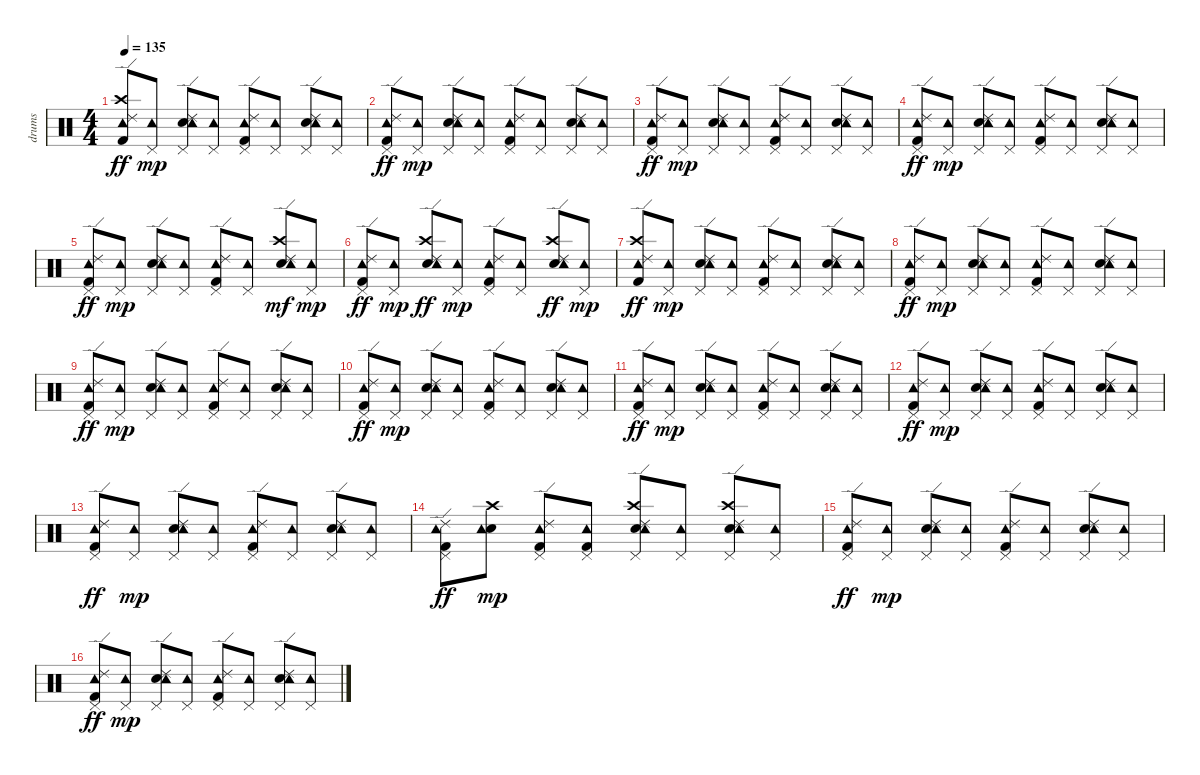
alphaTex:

\track ("drums" "drums") {instrument percussion}
\staff {score}
\articulation defaults
\ts (4 4)
\tempo 135
\clef neutral
\ks c
("Ride (edge) 2" "Kick (hit) 2" "Crash high (hit)" "Tambourine (hit)").8{dy ff} ("Pedal Hi-Hat (hit)" "Tambourine (hit)").8{dy mp} ("Electric Snare (hit)" "Ride (edge) 2" "Pedal Hi-Hat (hit)" "Tambourine (hit)").8 ("Pedal Hi-Hat (hit)" "Tambourine (hit)").8 ("Ride (edge) 2" "Kick (hit) 2" "Pedal Hi-Hat (hit)" "Tambourine (hit)").8 ("Pedal Hi-Hat (hit)" "Tambourine (hit)").8 ("Electric Snare (hit)" "Ride (edge) 2" "Pedal Hi-Hat (hit)" "Tambourine (hit)").8 ("Pedal Hi-Hat (hit)" "Tambourine (hit)").8 |
("Ride (edge) 2" "Kick (hit) 2" "Pedal Hi-Hat (hit)" "Tambourine (hit)").8{dy ff} ("Pedal Hi-Hat (hit)" "Tambourine (hit)").8{dy mp} ("Electric Snare (hit)" "Ride (edge) 2" "Pedal Hi-Hat (hit)" "Tambourine (hit)").8 ("Pedal Hi-Hat (hit)" "Tambourine (hit)").8 ("Ride (edge) 2" "Kick (hit) 2" "Pedal Hi-Hat (hit)" "Tambourine (hit)").8 ("Pedal Hi-Hat (hit)" "Tambourine (hit)").8 ("Electric Snare (hit)" "Ride (edge) 2" "Pedal Hi-Hat (hit)" "Tambourine (hit)").8 ("Pedal Hi-Hat (hit)" "Tambourine (hit)").8 |
("Ride (edge) 2" "Kick (hit) 2" "Pedal Hi-Hat (hit)" "Tambourine (hit)").8{dy ff} ("Pedal Hi-Hat (hit)" "Tambourine (hit)").8{dy mp} ("Electric Snare (hit)" "Ride (edge) 2" "Pedal Hi-Hat (hit)" "Tambourine (hit)").8 ("Pedal Hi-Hat (hit)" "Tambourine (hit)").8 ("Ride (edge) 2" "Kick (hit) 2" "Pedal Hi-Hat (hit)" "Tambourine (hit)").8 ("Pedal Hi-Hat (hit)" "Tambourine (hit)").8 ("Electric Snare (hit)" "Ride (edge) 2" "Pedal Hi-Hat (hit)" "Tambourine (hit)").8 ("Pedal Hi-Hat (hit)" "Tambourine (hit)").8 |
("Ride (edge) 2" "Kick (hit) 2" "Pedal Hi-Hat (hit)" "Tambourine (hit)").8{dy ff} ("Pedal Hi-Hat (hit)" "Tambourine (hit)").8{dy mp} ("Electric Snare (hit)" "Ride (edge) 2" "Pedal Hi-Hat (hit)" "Tambourine (hit)").8 ("Pedal Hi-Hat (hit)" "Tambourine (hit)").8 ("Ride (edge) 2" "Kick (hit) 2" "Pedal Hi-Hat (hit)" "Tambourine (hit)").8 ("Pedal Hi-Hat (hit)" "Tambourine (hit)").8 ("Electric Snare (hit)" "Ride (edge) 2" "Pedal Hi-Hat (hit)" "Tambourine (hit)").8 ("Pedal Hi-Hat (hit)" "Tambourine (hit)").8 |
("Ride (edge) 2" "Kick (hit) 2" "Pedal Hi-Hat (hit)" "Tambourine (hit)").8{dy ff} ("Pedal Hi-Hat (hit)" "Tambourine (hit)").8{dy mp} ("Electric Snare (hit)" "Ride (edge) 2" "Pedal Hi-Hat (hit)" "Tambourine (hit)").8 ("Pedal Hi-Hat (hit)" "Tambourine (hit)").8 ("Ride (edge) 2" "Kick (hit) 2" "Pedal Hi-Hat (hit)" "Tambourine (hit)").8 ("Pedal Hi-Hat (hit)" "Tambourine (hit)").8 ("Electric Snare (hit)" "Ride (edge) 2" "Crash high (hit)" "Tambourine (hit)").8{dy mf} ("Pedal Hi-Hat (hit)" "Tambourine (hit)").8{dy mp} |
("Ride (edge) 2" "Kick (hit) 2" "Pedal Hi-Hat (hit)" "Tambourine (hit)").8{dy ff} ("Pedal Hi-Hat (hit)" "Tambourine (hit)").8{dy mp} ("Electric Snare (hit)" "Ride (edge) 2" "Crash high (hit)" "Tambourine (hit)").8{dy ff} ("Pedal Hi-Hat (hit)" "Tambourine (hit)").8{dy mp} ("Ride (edge) 2" "Kick (hit) 2" "Pedal Hi-Hat (hit)" "Tambourine (hit)").8 ("Pedal Hi-Hat (hit)" "Tambourine (hit)").8 ("Electric Snare (hit)" "Ride (edge) 2" "Crash high (hit)" "Tambourine (hit)").8{dy ff} ("Pedal Hi-Hat (hit)" "Tambourine (hit)").8{dy mp} |
("Ride (edge) 2" "Kick (hit) 2" "Crash high (hit)" "Tambourine (hit)").8{dy ff} ("Pedal Hi-Hat (hit)" "Tambourine (hit)").8{dy mp} ("Electric Snare (hit)" "Ride (edge) 2" "Pedal Hi-Hat (hit)" "Tambourine (hit)").8 ("Pedal Hi-Hat (hit)" "Tambourine (hit)").8 ("Ride (edge) 2" "Kick (hit) 2" "Pedal Hi-Hat (hit)" "Tambourine (hit)").8 ("Pedal Hi-Hat (hit)" "Tambourine (hit)").8 ("Electric Snare (hit)" "Ride (edge) 2" "Pedal Hi-Hat (hit)" "Tambourine (hit)").8 ("Pedal Hi-Hat (hit)" "Tambourine (hit)").8 |
("Ride (edge) 2" "Kick (hit) 2" "Pedal Hi-Hat (hit)" "Tambourine (hit)").8{dy ff} ("Pedal Hi-Hat (hit)" "Tambourine (hit)").8{dy mp} ("Electric Snare (hit)" "Ride (edge) 2" "Pedal Hi-Hat (hit)" "Tambourine (hit)").8 ("Pedal Hi-Hat (hit)" "Tambourine (hit)").8 ("Ride (edge) 2" "Kick (hit) 2" "Pedal Hi-Hat (hit)" "Tambourine (hit)").8 ("Pedal Hi-Hat (hit)" "Tambourine (hit)").8 ("Electric Snare (hit)" "Ride (edge) 2" "Pedal Hi-Hat (hit)" "Tambourine (hit)").8 ("Pedal Hi-Hat (hit)" "Tambourine (hit)").8 |
("Ride (edge) 2" "Kick (hit) 2" "Pedal Hi-Hat (hit)" "Tambourine (hit)").8{dy ff} ("Pedal Hi-Hat (hit)" "Tambourine (hit)").8{dy mp} ("Electric Snare (hit)" "Ride (edge) 2" "Pedal Hi-Hat (hit)" "Tambourine (hit)").8 ("Pedal Hi-Hat (hit)" "Tambourine (hit)").8 ("Ride (edge) 2" "Kick (hit) 2" "Pedal Hi-Hat (hit)" "Tambourine (hit)").8 ("Pedal Hi-Hat (hit)" "Tambourine (hit)").8 ("Electric Snare (hit)" "Ride (edge) 2" "Pedal Hi-Hat (hit)" "Tambourine (hit)").8 ("Pedal Hi-Hat (hit)" "Tambourine (hit)").8 |
("Ride (edge) 2" "Kick (hit) 2" "Pedal Hi-Hat (hit)" "Tambourine (hit)").8{dy ff} ("Pedal Hi-Hat (hit)" "Tambourine (hit)").8{dy mp} ("Electric Snare (hit)" "Ride (edge) 2" "Pedal Hi-Hat (hit)" "Tambourine (hit)").8 ("Pedal Hi-Hat (hit)" "Tambourine (hit)").8 ("Ride (edge) 2" "Kick (hit) 2" "Pedal Hi-Hat (hit)" "Tambourine (hit)").8 ("Pedal Hi-Hat (hit)" "Tambourine (hit)").8 ("Electric Snare (hit)" "Ride (edge) 2" "Pedal Hi-Hat (hit)" "Tambourine (hit)").8 ("Pedal Hi-Hat (hit)" "Tambourine (hit)").8 |
("Ride (edge) 2" "Kick (hit) 2" "Pedal Hi-Hat (hit)" "Tambourine (hit)").8{dy ff} ("Pedal Hi-Hat (hit)" "Tambourine (hit)").8{dy mp} ("Electric Snare (hit)" "Ride (edge) 2" "Pedal Hi-Hat (hit)" "Tambourine (hit)").8 ("Pedal Hi-Hat (hit)" "Tambourine (hit)").8 ("Ride (edge) 2" "Kick (hit) 2" "Pedal Hi-Hat (hit)" "Tambourine (hit)").8 ("Pedal Hi-Hat (hit)" "Tambourine (hit)").8 ("Electric Snare (hit)" "Ride (edge) 2" "Pedal Hi-Hat (hit)" "Tambourine (hit)").8 ("Pedal Hi-Hat (hit)" "Tambourine (hit)").8 |
("Ride (edge) 2" "Kick (hit) 2" "Pedal Hi-Hat (hit)" "Tambourine (hit)").8{dy ff} ("Pedal Hi-Hat (hit)" "Tambourine (hit)").8{dy mp} ("Electric Snare (hit)" "Ride (edge) 2" "Pedal Hi-Hat (hit)" "Tambourine (hit)").8 ("Pedal Hi-Hat (hit)" "Tambourine (hit)").8 ("Ride (edge) 2" "Kick (hit) 2" "Pedal Hi-Hat (hit)" "Tambourine (hit)").8 ("Pedal Hi-Hat (hit)" "Tambourine (hit)").8 ("Electric Snare (hit)" "Ride (edge) 2" "Pedal Hi-Hat (hit)" "Tambourine (hit)").8 ("Pedal Hi-Hat (hit)" "Tambourine (hit)").8 |
("Ride (edge) 2" "Kick (hit) 2" "Pedal Hi-Hat (hit)" "Tambourine (hit)").8{dy ff} ("Pedal Hi-Hat (hit)" "Tambourine (hit)").8{dy mp} ("Electric Snare (hit)" "Ride (edge) 2" "Pedal Hi-Hat (hit)" "Tambourine (hit)").8 ("Pedal Hi-Hat (hit)" "Tambourine (hit)").8 ("Ride (edge) 2" "Kick (hit) 2" "Pedal Hi-Hat (hit)" "Tambourine (hit)").8 ("Pedal Hi-Hat (hit)" "Tambourine (hit)").8 ("Electric Snare (hit)" "Ride (edge) 2" "Pedal Hi-Hat (hit)" "Tambourine (hit)").8 ("Pedal Hi-Hat (hit)" "Tambourine (hit)").8 |
("Ride (edge) 2" "Kick (hit) 2" "Pedal Hi-Hat (hit)" "Tambourine (hit)").8{dy ff} ("Electric Snare (hit)" "Crash high (hit)" "Tambourine (hit)").8{dy mp} ("Ride (edge) 2" "Kick (hit) 2" "Pedal Hi-Hat (hit)" "Tambourine (hit)").8 ("Kick (hit) 2" "Pedal Hi-Hat (hit)" "Tambourine (hit)").8 ("Electric Snare (hit)" "Ride (edge) 2" "Crash high (hit)" "Pedal Hi-Hat (hit)" "Tambourine (hit)").8 ("Pedal Hi-Hat (hit)" "Tambourine (hit)").8 ("Electric Snare (hit)" "Ride (edge) 2" "Crash high (hit)" "Pedal Hi-Hat (hit)" "Tambourine (hit)").8 ("Pedal Hi-Hat (hit)" "Tambourine (hit)").8 |
("Ride (edge) 2" "Kick (hit) 2" "Pedal Hi-Hat (hit)" "Tambourine (hit)").8{dy ff} ("Pedal Hi-Hat (hit)" "Tambourine (hit)").8{dy mp} ("Electric Snare (hit)" "Ride (edge) 2" "Pedal Hi-Hat (hit)" "Tambourine (hit)").8 ("Pedal Hi-Hat (hit)" "Tambourine (hit)").8 ("Ride (edge) 2" "Kick (hit) 2" "Pedal Hi-Hat (hit)" "Tambourine (hit)").8 ("Pedal Hi-Hat (hit)" "Tambourine (hit)").8 ("Electric Snare (hit)" "Ride (edge) 2" "Pedal Hi-Hat (hit)" "Tambourine (hit)").8 ("Pedal Hi-Hat (hit)" "Tambourine (hit)").8 |
("Ride (edge) 2" "Kick (hit) 2" "Pedal Hi-Hat (hit)" "Tambourine (hit)").8{dy ff} ("Pedal Hi-Hat (hit)" "Tambourine (hit)").8{dy mp} ("Electric Snare (hit)" "Ride (edge) 2" "Pedal Hi-Hat (hit)" "Tambourine (hit)").8 ("Pedal Hi-Hat (hit)" "Tambourine (hit)").8 ("Ride (edge) 2" "Kick (hit) 2" "Pedal Hi-Hat (hit)" "Tambourine (hit)").8 ("Pedal Hi-Hat (hit)" "Tambourine (hit)").8 ("Electric Snare (hit)" "Ride (edge) 2" "Pedal Hi-Hat (hit)" "Tambourine (hit)").8 ("Pedal Hi-Hat (hit)" "Tambourine (hit)").8
